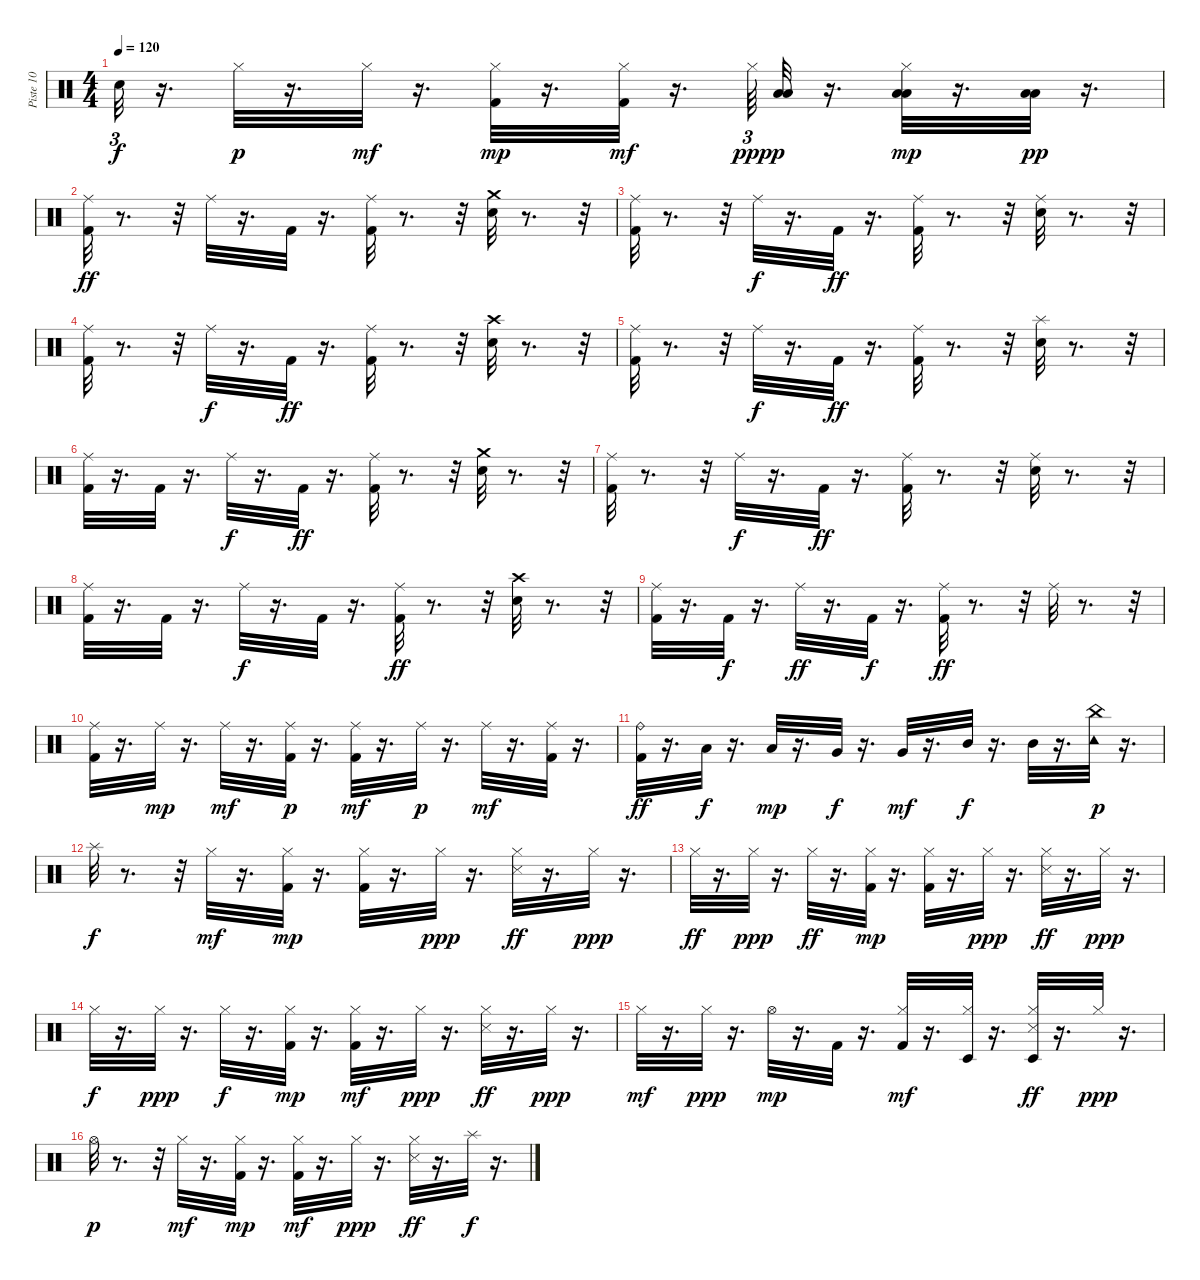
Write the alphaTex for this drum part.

\track ("Piste 10" "Piste 10") {instrument percussion}
\staff {score}
\articulation defaults
\ts (4 4)
\tempo 120
\clef neutral
\ks c "Snare (hit)"{t}.32{tu (3 2) dy f}
r.16{d} "Hi-Hat (closed)".32{dy p} r.16{d} "Hi-Hat (closed)".32{dy mf} r.16{d} ("Hi-Hat (closed)" "Kick (hit) 2").32{dy mp} r.16{d} ("Hi-Hat (closed)" "Kick (hit) 2").32{dy mf} r.16{d} "Hi-Hat (closed)".64{tu (3 2) dy ppp} ("Low Floor Tom (hit)" "Low Tom (hit)").32{dy p} r.16{d} ("Hi-Hat (closed)" "Low Tom (hit)" "Low Floor Tom (hit)").32{dy mp} r.16{d} ("Low Floor Tom (hit)" "Low Tom (hit)").32{dy pp} r.16{d} |
("Ride (middle)" "Kick (hit) 2").32{dy ff} r.8{d} r.32 "Ride (middle)".32 r.16{d} "Kick (hit) 2".32 r.16{d} ("Ride (middle)" "Kick (hit) 2").32 r.8{d} r.32 ("Electric Snare (hit)" "Crash medium (hit)").32 r.8{d} r.32 |
("Ride (middle)" "Kick (hit) 2").32 r.8{d} r.32 "Ride (middle)".32{dy f} r.16{d} "Kick (hit) 2".32{dy ff} r.16{d} ("Ride (middle)" "Kick (hit) 2").32 r.8{d} r.32 ("Electric Snare (hit)" "Ride (middle)").32 r.8{d} r.32 |
("Ride (middle)" "Kick (hit) 2").32 r.8{d} r.32 "Ride (middle)".32{dy f} r.16{d} "Kick (hit) 2".32{dy ff} r.16{d} ("Ride (middle)" "Kick (hit) 2").32 r.8{d} r.32 ("Electric Snare (hit)" "Crash high (hit)").32 r.8{d} r.32 |
("Ride (middle)" "Kick (hit) 2").32 r.8{d} r.32 "Ride (middle)".32{dy f} r.16{d} "Kick (hit) 2".32{dy ff} r.16{d} ("Ride (middle)" "Kick (hit) 2").32 r.8{d} r.32 ("Electric Snare (hit)" "Splash (hit)").32 r.8{d} r.32 |
("Ride (middle)" "Kick (hit) 2").32 r.16{d} "Kick (hit) 2".32 r.16{d} "Ride (middle)".32{dy f} r.16{d} "Kick (hit) 2".32{dy ff} r.16{d} ("Ride (middle)" "Kick (hit) 2").32 r.8{d} r.32 ("Crash medium (hit)" "Electric Snare (hit)").32 r.8{d} r.32 |
("Ride (middle)" "Kick (hit) 2").32 r.8{d} r.32 "Ride (middle)".32{dy f} r.16{d} "Kick (hit) 2".32{dy ff} r.16{d} ("Ride (middle)" "Kick (hit) 2").32 r.8{d} r.32 ("Ride (middle)" "Electric Snare (hit)").32 r.8{d} r.32 |
("Ride (middle)" "Kick (hit) 2").32 r.16{d} "Kick (hit) 2".32 r.16{d} "Ride (middle)".32{dy f} r.16{d} "Kick (hit) 2".32 r.16{d} ("Ride (middle)" "Kick (hit) 2").32{dy ff} r.8{d} r.32 ("Crash high (hit)" "Electric Snare (hit)").32 r.8{d} r.32 |
("Ride (middle)" "Kick (hit) 2").32 r.16{d} "Kick (hit) 2".32{dy f} r.16{d} "Ride (middle)".32{dy ff} r.16{d} "Kick (hit) 2".32{dy f} r.16{d} ("Ride (middle)" "Kick (hit) 2").32{dy ff} r.8{d} r.32 "Ride (middle)".32 r.8{d} r.32 |
("Ride (middle)" "Kick (hit) 2").32 r.16{d} "Ride (middle)".32{dy mp} r.16{d} "Ride (middle)".32{dy mf} r.16{d} ("Kick (hit) 2" "Ride (middle)").32{dy p} r.16{d} ("Kick (hit) 2" "Ride (middle)").32{dy mf} r.16{d} "Ride (middle)".32{dy p} r.16{d} "Ride (middle)".32{dy mf} r.16{d} ("Kick (hit) 2" "Ride (middle)").32 r.16{d} |
("Ride (bell)" "Kick (hit) 2").32{dy ff} r.16{d} "Low Floor Tom (hit)".32{dy f} r.16{d} "Low Floor Tom (hit)".32{dy mp} r.16{d} "Very Low Tom (hit)".32{dy f} r.16{d} "Very Low Tom (hit)".32{dy mf} r.16{d} "Mid Tom (hit)".32{dy f} r.16{d} "Mid Tom (hit)".32 r.16{d} ("China (hit)" "Tambourine (hit)").32{dy p} r.16{d} |
"Splash (hit)".32{dy f} r.8{d} r.32 "Hi-Hat (closed)".32{dy mf} r.16{d} ("Hi-Hat (closed)" "Kick (hit) 2").32{dy mp} r.16{d} ("Hi-Hat (closed)" "Kick (hit) 2").32 r.16{d} "Hi-Hat (closed)".32{dy ppp} r.16{d} ("Hi-Hat (closed)" "Snare (side stick) 3").32{dy ff} r.16{d} "Hi-Hat (closed)".32{dy ppp} r.16{d} |
"Hi-Hat (closed)".32{dy ff} r.16{d} "Hi-Hat (closed)".32{dy ppp} r.16{d} "Hi-Hat (closed)".32{dy ff} r.16{d} ("Hi-Hat (closed)" "Kick (hit) 2").32{dy mp} r.16{d} ("Hi-Hat (closed)" "Kick (hit) 2").32 r.16{d} "Hi-Hat (closed)".32{dy ppp} r.16{d} ("Hi-Hat (closed)" "Snare (side stick) 3").32{dy ff} r.16{d} "Hi-Hat (closed)".32{dy ppp} r.16{d} |
"Hi-Hat (closed)".32{dy f} r.16{d} "Hi-Hat (closed)".32{dy ppp} r.16{d} "Hi-Hat (closed)".32{dy f} r.16{d} ("Hi-Hat (closed)" "Kick (hit) 2").32{dy mp} r.16{d} ("Hi-Hat (closed)" "Kick (hit) 2").32{dy mf} r.16{d} "Hi-Hat (closed)".32{dy ppp} r.16{d} ("Hi-Hat (closed)" "Snare (side stick) 3").32{dy ff} r.16{d} "Hi-Hat (closed)".32{dy ppp} r.16{d} |
"Hi-Hat (closed)".32{dy mf} r.16{d} "Hi-Hat (closed)".32{dy ppp} r.16{d} "Hi-Hat (open)".32{dy mp} r.16{d} "Kick (hit) 2".32 r.16{d} ("Hi-Hat (closed)" "Kick (hit) 2").32{dy mf} r.16{d} ("Hi-Hat (closed)" "Timbale low (hit)").32 r.16{d} ("Timbale low (hit)" "Hi-Hat (closed)" "Snare (side stick) 3").32{dy ff} r.16{d} "Hi-Hat (closed)".32{dy ppp} r.16{d} |
"Hi-Hat (open)".32{dy p} r.8{d} r.32 "Hi-Hat (closed)".32{dy mf} r.16{d} ("Hi-Hat (closed)" "Kick (hit) 2").32{dy mp} r.16{d} ("Hi-Hat (closed)" "Kick (hit) 2").32{dy mf} r.16{d} "Hi-Hat (closed)".32{dy ppp} r.16{d} ("Hi-Hat (closed)" "Snare (side stick) 3").32{dy ff} r.16{d} "Splash (hit)".32{dy f} r.16{d}
